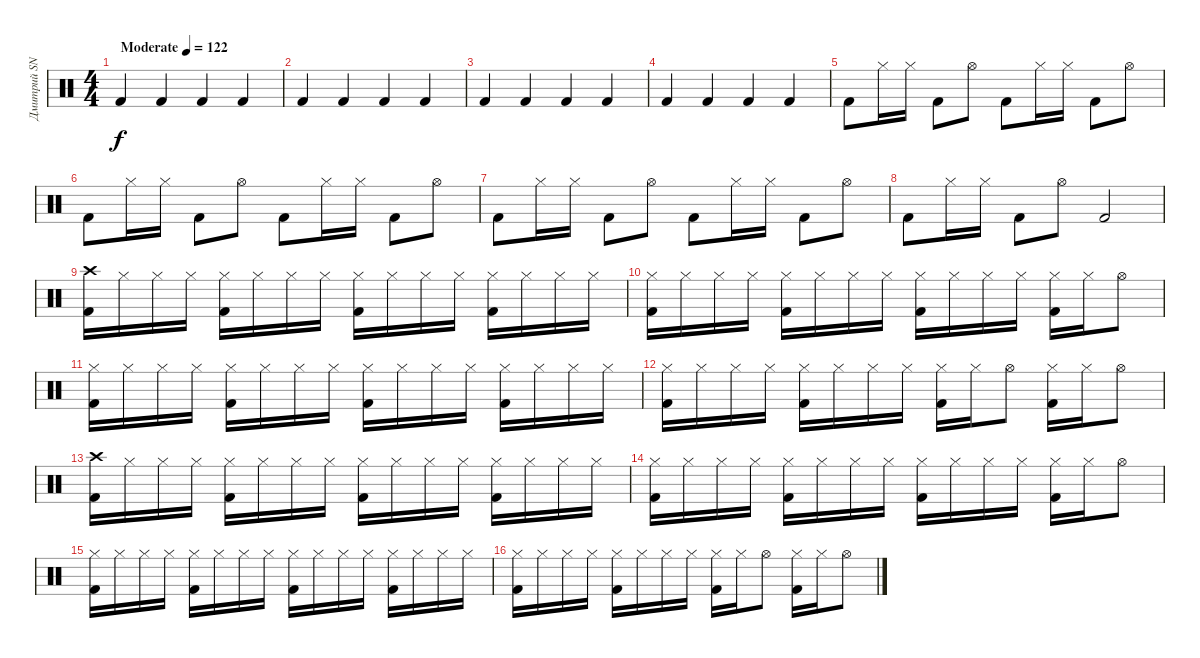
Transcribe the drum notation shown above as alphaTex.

\track ("Дмитрий SNAKE Хакимов" "Дмитрий SN") {instrument percussion}
\staff {score}
\articulation defaults
\ts (4 4)
\tempo (122 "Moderate")
\clef neutral
\ks c "Kick (hit) 2".4{dy f} "Kick (hit) 2".4 "Kick (hit) 2".4 "Kick (hit) 2".4
|
"Kick (hit) 2".4 "Kick (hit) 2".4 "Kick (hit) 2".4 "Kick (hit) 2".4 |
"Kick (hit) 2".4 "Kick (hit) 2".4 "Kick (hit) 2".4 "Kick (hit) 2".4 |
"Kick (hit) 2".4 "Kick (hit) 2".4 "Kick (hit) 2".4 "Kick (hit) 2".4 |
"Kick (hit) 2".8 "Hi-Hat (closed)".16 "Hi-Hat (closed)".16 "Kick (hit) 2".8 "Hi-Hat (open)".8 "Kick (hit) 2".8 "Hi-Hat (closed)".16 "Hi-Hat (closed)".16 "Kick (hit) 2".8 "Hi-Hat (open)".8 |
"Kick (hit) 2".8 "Hi-Hat (closed)".16 "Hi-Hat (closed)".16 "Kick (hit) 2".8 "Hi-Hat (open)".8 "Kick (hit) 2".8 "Hi-Hat (closed)".16 "Hi-Hat (closed)".16 "Kick (hit) 2".8 "Hi-Hat (open)".8 |
"Kick (hit) 2".8 "Hi-Hat (closed)".16 "Hi-Hat (closed)".16 "Kick (hit) 2".8 "Hi-Hat (open)".8 "Kick (hit) 2".8 "Hi-Hat (closed)".16 "Hi-Hat (closed)".16 "Kick (hit) 2".8 "Hi-Hat (open)".8 |
"Kick (hit) 2".8 "Hi-Hat (closed)".16 "Hi-Hat (closed)".16 "Kick (hit) 2".8 "Hi-Hat (open)".8 "Kick (hit) 2".2 |
("Crash high (hit)" "Kick (hit) 2").16 "Hi-Hat (closed)".16 "Hi-Hat (closed)".16 "Hi-Hat (closed)".16 ("Hi-Hat (closed)" "Kick (hit) 2").16 "Hi-Hat (closed)".16 "Hi-Hat (closed)".16 "Hi-Hat (closed)".16 ("Hi-Hat (closed)" "Kick (hit) 2").16 "Hi-Hat (closed)".16 "Hi-Hat (closed)".16 "Hi-Hat (closed)".16 ("Hi-Hat (closed)" "Kick (hit) 2").16 "Hi-Hat (closed)".16 "Hi-Hat (closed)".16 "Hi-Hat (closed)".16 |
("Hi-Hat (closed)" "Kick (hit) 2").16 "Hi-Hat (closed)".16 "Hi-Hat (closed)".16 "Hi-Hat (closed)".16 ("Hi-Hat (closed)" "Kick (hit) 2").16 "Hi-Hat (closed)".16 "Hi-Hat (closed)".16 "Hi-Hat (closed)".16 ("Hi-Hat (closed)" "Kick (hit) 2").16 "Hi-Hat (closed)".16 "Hi-Hat (closed)".16 "Hi-Hat (closed)".16 ("Hi-Hat (closed)" "Kick (hit) 2").16 "Hi-Hat (closed)".16 "Hi-Hat (open)".8 |
("Hi-Hat (closed)" "Kick (hit) 2").16 "Hi-Hat (closed)".16 "Hi-Hat (closed)".16 "Hi-Hat (closed)".16 ("Hi-Hat (closed)" "Kick (hit) 2").16 "Hi-Hat (closed)".16 "Hi-Hat (closed)".16 "Hi-Hat (closed)".16 ("Hi-Hat (closed)" "Kick (hit) 2").16 "Hi-Hat (closed)".16 "Hi-Hat (closed)".16 "Hi-Hat (closed)".16 ("Hi-Hat (closed)" "Kick (hit) 2").16 "Hi-Hat (closed)".16 "Hi-Hat (closed)".16 "Hi-Hat (closed)".16 |
("Hi-Hat (closed)" "Kick (hit) 2").16 "Hi-Hat (closed)".16 "Hi-Hat (closed)".16 "Hi-Hat (closed)".16 ("Hi-Hat (closed)" "Kick (hit) 2").16 "Hi-Hat (closed)".16 "Hi-Hat (closed)".16 "Hi-Hat (closed)".16 ("Hi-Hat (closed)" "Kick (hit) 2").16 "Hi-Hat (closed)".16 "Hi-Hat (open)".8 ("Hi-Hat (closed)" "Kick (hit) 2").16 "Hi-Hat (closed)".16 "Hi-Hat (open)".8 |
("Crash high (hit)" "Kick (hit) 2").16 "Hi-Hat (closed)".16 "Hi-Hat (closed)".16 "Hi-Hat (closed)".16 ("Hi-Hat (closed)" "Kick (hit) 2").16 "Hi-Hat (closed)".16 "Hi-Hat (closed)".16 "Hi-Hat (closed)".16 ("Hi-Hat (closed)" "Kick (hit) 2").16 "Hi-Hat (closed)".16 "Hi-Hat (closed)".16 "Hi-Hat (closed)".16 ("Hi-Hat (closed)" "Kick (hit) 2").16 "Hi-Hat (closed)".16 "Hi-Hat (closed)".16 "Hi-Hat (closed)".16 |
("Hi-Hat (closed)" "Kick (hit) 2").16 "Hi-Hat (closed)".16 "Hi-Hat (closed)".16 "Hi-Hat (closed)".16 ("Hi-Hat (closed)" "Kick (hit) 2").16 "Hi-Hat (closed)".16 "Hi-Hat (closed)".16 "Hi-Hat (closed)".16 ("Hi-Hat (closed)" "Kick (hit) 2").16 "Hi-Hat (closed)".16 "Hi-Hat (closed)".16 "Hi-Hat (closed)".16 ("Hi-Hat (closed)" "Kick (hit) 2").16 "Hi-Hat (closed)".16 "Hi-Hat (open)".8 |
("Hi-Hat (closed)" "Kick (hit) 2").16 "Hi-Hat (closed)".16 "Hi-Hat (closed)".16 "Hi-Hat (closed)".16 ("Hi-Hat (closed)" "Kick (hit) 2").16 "Hi-Hat (closed)".16 "Hi-Hat (closed)".16 "Hi-Hat (closed)".16 ("Hi-Hat (closed)" "Kick (hit) 2").16 "Hi-Hat (closed)".16 "Hi-Hat (closed)".16 "Hi-Hat (closed)".16 ("Hi-Hat (closed)" "Kick (hit) 2").16 "Hi-Hat (closed)".16 "Hi-Hat (closed)".16 "Hi-Hat (closed)".16 |
("Hi-Hat (closed)" "Kick (hit) 2").16 "Hi-Hat (closed)".16 "Hi-Hat (closed)".16 "Hi-Hat (closed)".16 ("Hi-Hat (closed)" "Kick (hit) 2").16 "Hi-Hat (closed)".16 "Hi-Hat (closed)".16 "Hi-Hat (closed)".16 ("Hi-Hat (closed)" "Kick (hit) 2").16 "Hi-Hat (closed)".16 "Hi-Hat (open)".8 ("Hi-Hat (closed)" "Kick (hit) 2").16 "Hi-Hat (closed)".16 "Hi-Hat (open)".8
